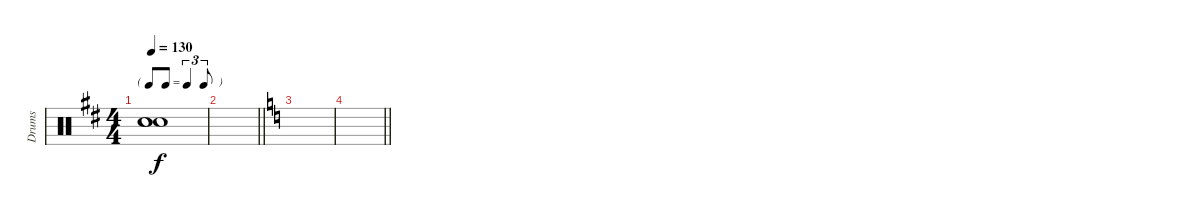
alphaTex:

\track ("Drums" "Drums") {instrument percussion}
\staff {score}
\articulation defaults
\ts (4 4)
\tf triplet8th
\tempo 130
\clef neutral
\ks d
("Snare (hit)"{t} "Snare (hit)"{t} "Snare (hit)"{t}).1{dy f} |
\barLineRight lightlight
|
\ks c
|
\barLineRight lightlight
